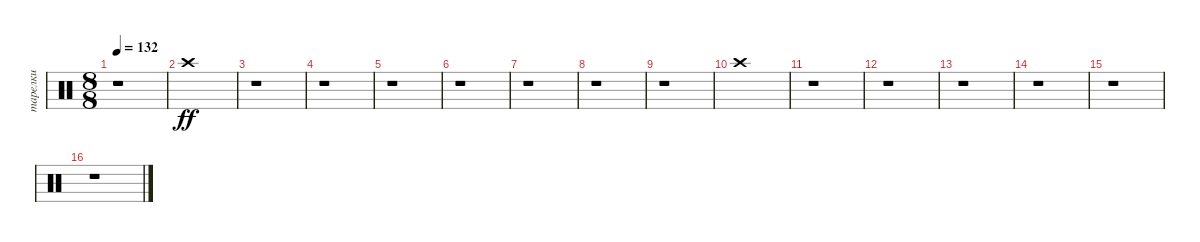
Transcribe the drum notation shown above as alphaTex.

\track ("тарелки" "тарелки") {instrument percussion}
\staff {score}
\articulation defaults
\ts (8 8)
\tempo 132
\clef neutral
\ks c
r.1{dy ff} |
"Crash high (hit)".1 |
r.1 |
r.1 |
r.1 |
r.1 |
r.1 |
r.1 |
r.1 |
"Crash high (hit)".1 |
r.1 |
r.1 |
r.1 |
r.1 |
r.1 |
r.1
